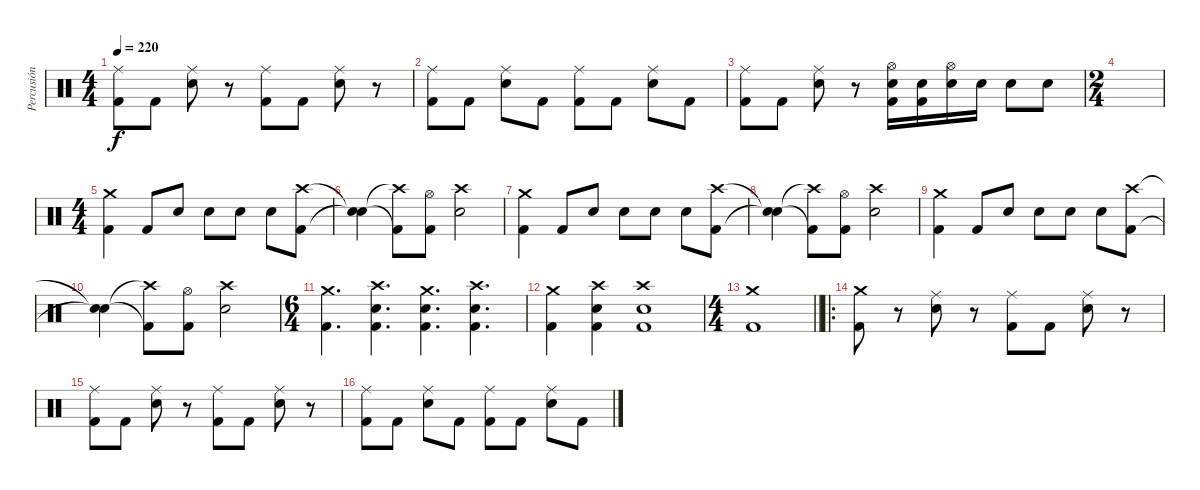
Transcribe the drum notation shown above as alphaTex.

\track ("Percusión" "Percusión") {instrument percussion}
\staff {score}
\articulation defaults
\ts (4 4)
\tempo 220
\clef neutral
\ks c
("Ride (middle)" "Kick (hit) 2").8{dy f} "Kick (hit) 2".8 ("Ride (middle)" "Electric Snare (hit)").8 r.8 ("Ride (middle)" "Kick (hit) 2").8 "Kick (hit) 2".8 ("Ride (middle)" "Electric Snare (hit)").8 r.8 |
("Ride (middle)" "Kick (hit) 2").8 "Kick (hit) 2".8 ("Ride (middle)" "Electric Snare (hit)").8 "Kick (hit) 2".8 ("Ride (middle)" "Kick (hit) 2").8 "Kick (hit) 2".8 ("Ride (middle)" "Electric Snare (hit)").8 "Kick (hit) 2".8 |
("Ride (middle)" "Kick (hit) 2").8 "Kick (hit) 2".8 ("Ride (middle)" "Electric Snare (hit)").8 r.8 ("Hi-Hat (open)" "Electric Snare (hit)" "Kick (hit) 2").16 ("Electric Snare (hit)" "Kick (hit) 2").16 ("Hi-Hat (open)" "Electric Snare (hit)").16 "Electric Snare (hit)".16 "Electric Snare (hit)".8 "Electric Snare (hit)".8 |
\ts (2 4)
|
\ts (4 4)
("Crash medium (hit)" "Kick (hit) 2").4 "Kick (hit) 2".8 "Electric Snare (hit)".8 "Electric Snare (hit)".8 "Electric Snare (hit)".8 "Electric Snare (hit)".8 ("Crash high (hit)" "Kick (hit) 2").8 |
("Snare (hit)"{t} "Snare (hit)"{t}).4 ("Crash high (hit)"{t} "Kick (hit) 2"{t}).8 ("Hi-Hat (open)" "Kick (hit) 2").8 ("Crash high (hit)" "Electric Snare (hit)").2 |
("Crash medium (hit)" "Kick (hit) 2").4 "Kick (hit) 2".8 "Electric Snare (hit)".8 "Electric Snare (hit)".8 "Electric Snare (hit)".8 "Electric Snare (hit)".8 ("Crash high (hit)" "Kick (hit) 2").8 |
("Snare (hit)"{t} "Snare (hit)"{t}).4 ("Crash high (hit)"{t} "Kick (hit) 2"{t}).8 ("Hi-Hat (open)" "Kick (hit) 2").8 ("Crash high (hit)" "Electric Snare (hit)").2 |
("Crash medium (hit)" "Kick (hit) 2").4 "Kick (hit) 2".8 "Electric Snare (hit)".8 "Electric Snare (hit)".8 "Electric Snare (hit)".8 "Electric Snare (hit)".8 ("Crash high (hit)" "Kick (hit) 2").8 |
("Snare (hit)"{t} "Snare (hit)"{t}).4 ("Crash high (hit)"{t} "Kick (hit) 2"{t}).8 ("Hi-Hat (open)" "Kick (hit) 2").8 ("Crash high (hit)" "Electric Snare (hit)").2 |
\ts (6 4)
("Crash medium (hit)" "Kick (hit) 2").4{d} ("Crash high (hit)" "Electric Snare (hit)" "Kick (hit) 2").4{d} ("Crash medium (hit)" "Electric Snare (hit)" "Kick (hit) 2").4{d} ("Crash high (hit)" "Electric Snare (hit)" "Kick (hit) 2").4{d} |
("Crash medium (hit)" "Kick (hit) 2").4 ("Crash high (hit)" "Electric Snare (hit)" "Kick (hit) 2").4 ("Crash high (hit)" "Electric Snare (hit)" "Kick (hit) 2").1 |
\ts (4 4)
\barLineRight lightlight
("Crash medium (hit)" "Kick (hit) 2").1 |
\ro
("Crash medium (hit)" "Kick (hit) 2").8 r.8 ("Ride (middle)" "Electric Snare (hit)").8 r.8 ("Ride (middle)" "Kick (hit) 2").8 "Kick (hit) 2".8 ("Ride (middle)" "Electric Snare (hit)").8 r.8 |
("Ride (middle)" "Kick (hit) 2").8 "Kick (hit) 2".8 ("Ride (middle)" "Electric Snare (hit)").8 r.8 ("Ride (middle)" "Kick (hit) 2").8 "Kick (hit) 2".8 ("Ride (middle)" "Electric Snare (hit)").8 r.8 |
("Ride (middle)" "Kick (hit) 2").8 "Kick (hit) 2".8 ("Ride (middle)" "Electric Snare (hit)").8 "Kick (hit) 2".8 ("Ride (middle)" "Kick (hit) 2").8 "Kick (hit) 2".8 ("Ride (middle)" "Electric Snare (hit)").8 "Kick (hit) 2".8
